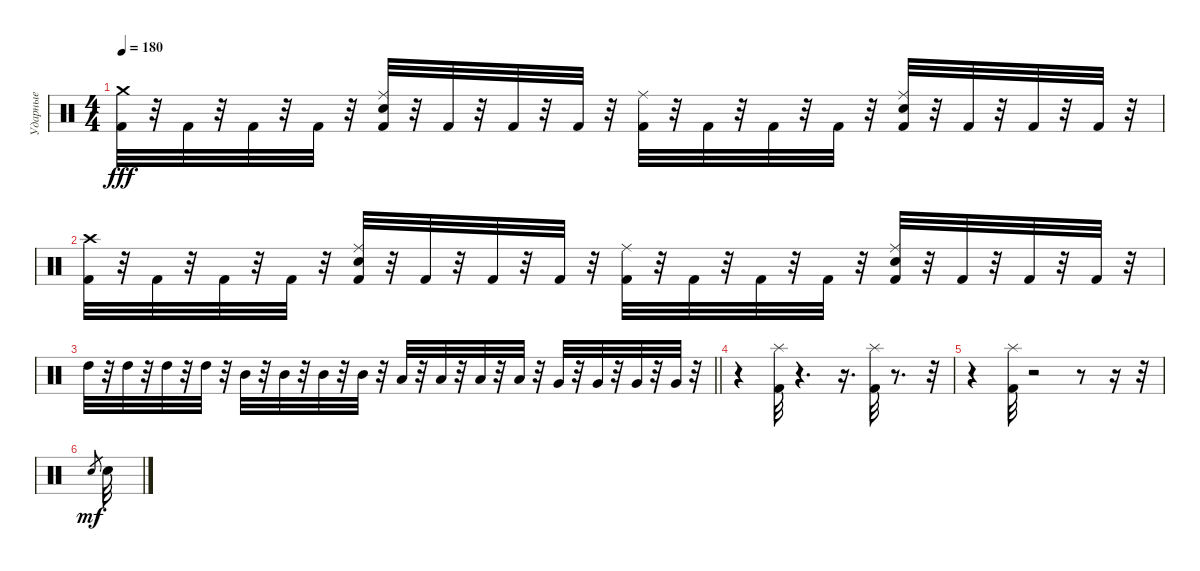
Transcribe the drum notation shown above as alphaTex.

\track ("Ударные" "Ударные") {instrument percussion}
\staff {score}
\articulation defaults
\ts (4 4)
\tempo 180
\clef neutral
\ks c
("Kick (hit) 2" "Crash medium (hit)").32{dy fff} r.32 "Kick (hit) 2".32 r.32 "Kick (hit) 2".32 r.32 "Kick (hit) 2".32 r.32 ("Kick (hit) 2" "Ride (middle)" "Snare (hit) 2").32 r.32 "Kick (hit) 2".32 r.32 "Kick (hit) 2".32 r.32 "Kick (hit) 2".32 r.32 ("Ride (middle)" "Kick (hit) 2").32 r.32 "Kick (hit) 2".32 r.32 "Kick (hit) 2".32 r.32 "Kick (hit) 2".32 r.32 ("Ride (middle)" "Kick (hit) 2" "Snare (hit) 2").32 r.32 "Kick (hit) 2".32 r.32 "Kick (hit) 2".32 r.32 "Kick (hit) 2".32 r.32 |
("Kick (hit) 2" "Crash high (hit)").32 r.32 "Kick (hit) 2".32 r.32 "Kick (hit) 2".32 r.32 "Kick (hit) 2".32 r.32 ("Ride (middle)" "Snare (hit) 2" "Kick (hit) 2").32 r.32 "Kick (hit) 2".32 r.32 "Kick (hit) 2".32 r.32 "Kick (hit) 2".32 r.32 ("Kick (hit) 2" "Ride (middle)").32 r.32 "Kick (hit) 2".32 r.32 "Kick (hit) 2".32 r.32 "Kick (hit) 2".32 r.32 ("Ride (middle)" "Kick (hit) 2" "Snare (hit) 2").32 r.32 "Kick (hit) 2".32 r.32 "Kick (hit) 2".32 r.32 "Kick (hit) 2".32 r.32 |
\barLineRight lightlight "High Tom (hit)".32
r.32 "High Tom (hit)".32 r.32 "High Tom (hit)".32 r.32 "High Tom (hit)".32 r.32 "Mid Tom (hit)".32 r.32 "Mid Tom (hit)".32 r.32 "Mid Tom (hit)".32 r.32 "Mid Tom (hit)".32 r.32 "Low Tom (hit)".32 r.32 "Low Tom (hit)".32 r.32 "Low Tom (hit)".32 r.32 "Low Tom (hit)".32 r.32 "Very Low Tom (hit)".32 r.32 "Very Low Tom (hit)".32 r.32 "Very Low Tom (hit)".32 r.32 "Very Low Tom (hit)".32 r.32 |
r.4 ("Kick (hit) 2" "Splash (hit)").32 r.4{d} r.16{d} ("Splash (hit)" "Kick (hit) 2").32 r.8{d} r.32 |
r.4 ("Kick (hit) 2" "Splash (hit)").32 r.2 r.8 r.16 r.32 |
"Snare (hit) 2".8{gr dy mf} "Snare (hit) 2".32
